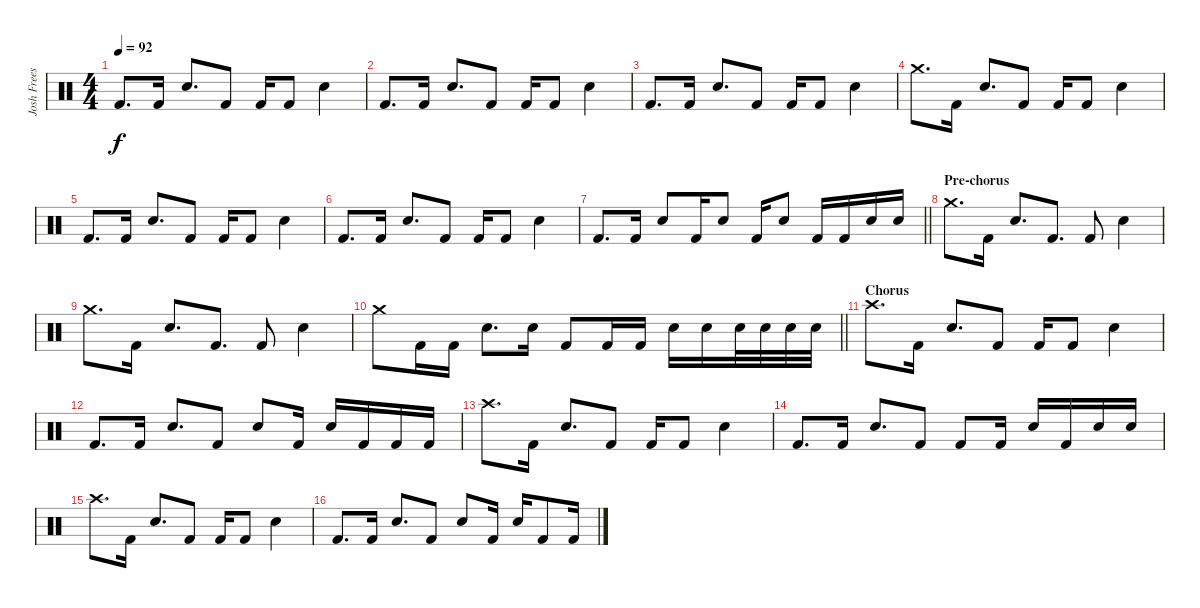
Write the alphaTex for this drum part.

\track ("Josh Freese (Studio Drummer)" "Josh Frees") {instrument percussion}
\staff {score}
\articulation defaults
\ts (4 4)
\tempo 92
\clef neutral
\ks c "Kick (hit) 2".8{d dy f} "Kick (hit) 2".16 "Electric Snare (hit)".8{d} "Kick (hit) 2".8 "Kick (hit) 2".16 "Kick (hit) 2".8 "Electric Snare (hit)".4
|
"Kick (hit) 2".8{d} "Kick (hit) 2".16 "Electric Snare (hit)".8{d} "Kick (hit) 2".8 "Kick (hit) 2".16 "Kick (hit) 2".8 "Electric Snare (hit)".4 |
"Kick (hit) 2".8{d} "Kick (hit) 2".16 "Electric Snare (hit)".8{d} "Kick (hit) 2".8 "Kick (hit) 2".16 "Kick (hit) 2".8 "Electric Snare (hit)".4 |
"Crash medium (hit)".8{d} "Kick (hit) 2".16 "Electric Snare (hit)".8{d} "Kick (hit) 2".8 "Kick (hit) 2".16 "Kick (hit) 2".8 "Electric Snare (hit)".4 |
"Kick (hit) 2".8{d} "Kick (hit) 2".16 "Electric Snare (hit)".8{d} "Kick (hit) 2".8 "Kick (hit) 2".16 "Kick (hit) 2".8 "Electric Snare (hit)".4 |
"Kick (hit) 2".8{d} "Kick (hit) 2".16 "Electric Snare (hit)".8{d} "Kick (hit) 2".8 "Kick (hit) 2".16 "Kick (hit) 2".8 "Electric Snare (hit)".4 |
\barLineRight lightlight "Kick (hit) 2".8{d} "Kick (hit) 2".16 "Electric Snare (hit)".8 "Kick (hit) 2".16 "Electric Snare (hit)".8 "Kick (hit) 2".16 "Electric Snare (hit)".8 "Kick (hit) 2".16 "Kick (hit) 2".16 "Electric Snare (hit)".16 "Electric Snare (hit)".16
|
\section ("" "Pre-chorus")
"Crash medium (hit)".8{d} "Kick (hit) 2".16 "Electric Snare (hit)".8{d} "Kick (hit) 2".8{d} "Kick (hit) 2".8 "Electric Snare (hit)".4 |
"Crash medium (hit)".8{d} "Kick (hit) 2".16 "Electric Snare (hit)".8{d} "Kick (hit) 2".8{d} "Kick (hit) 2".8 "Electric Snare (hit)".4 |
\barLineRight lightlight "Crash medium (hit)".8 "Kick (hit) 2".16 "Kick (hit) 2".16 "Electric Snare (hit)".8{d} "Electric Snare (hit)".16 "Kick (hit) 2".8 "Kick (hit) 2".16 "Kick (hit) 2".16 "Electric Snare (hit)".16 "Electric Snare (hit)".16 "Electric Snare (hit)".32 "Electric Snare (hit)".32 "Electric Snare (hit)".32 "Electric Snare (hit)".32
|
\section ("" "Chorus")
"Crash high (hit)".8{d} "Kick (hit) 2".16 "Electric Snare (hit)".8{d} "Kick (hit) 2".8 "Kick (hit) 2".16 "Kick (hit) 2".8 "Electric Snare (hit)".4 |
"Kick (hit) 2".8{d} "Kick (hit) 2".16 "Electric Snare (hit)".8{d} "Kick (hit) 2".8 "Electric Snare (hit)".8 "Kick (hit) 2".16 "Electric Snare (hit)".16 "Kick (hit) 2".16 "Kick (hit) 2".16 "Kick (hit) 2".16 |
"Crash high (hit)".8{d} "Kick (hit) 2".16 "Electric Snare (hit)".8{d} "Kick (hit) 2".8 "Kick (hit) 2".16 "Kick (hit) 2".8 "Electric Snare (hit)".4 |
"Kick (hit) 2".8{d} "Kick (hit) 2".16 "Electric Snare (hit)".8{d} "Kick (hit) 2".8 "Kick (hit) 2".8 "Kick (hit) 2".16 "Electric Snare (hit)".16 "Kick (hit) 2".16 "Electric Snare (hit)".16 "Electric Snare (hit)".16 |
"Crash high (hit)".8{d} "Kick (hit) 2".16 "Electric Snare (hit)".8{d} "Kick (hit) 2".8 "Kick (hit) 2".16 "Kick (hit) 2".8 "Electric Snare (hit)".4 |
"Kick (hit) 2".8{d} "Kick (hit) 2".16 "Electric Snare (hit)".8{d} "Kick (hit) 2".8 "Electric Snare (hit)".8 "Kick (hit) 2".16 "Electric Snare (hit)".16 "Kick (hit) 2".8 "Kick (hit) 2".16
